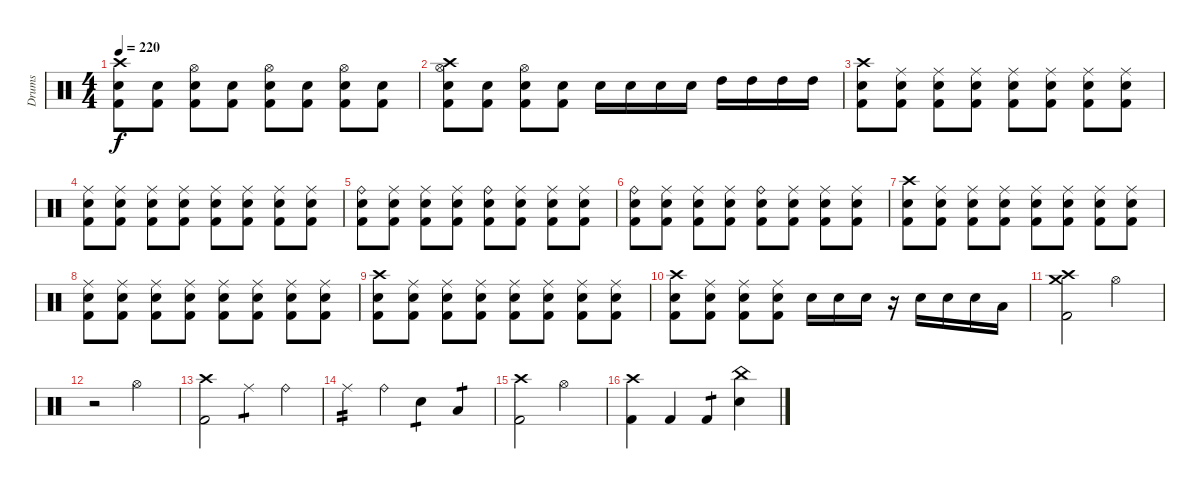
\track ("Drums" "Drums") {instrument percussion}
\staff {score}
\articulation defaults
\ts (4 4)
\tempo 220
\clef neutral
\ks c
("Crash high (hit)" "Electric Snare (hit)" "Kick (hit) 2").8{dy f} ("Electric Snare (hit)" "Kick (hit) 2").8 ("Hi-Hat (open)" "Electric Snare (hit)" "Kick (hit) 2").8 ("Electric Snare (hit)" "Kick (hit) 2").8 ("Hi-Hat (open)" "Electric Snare (hit)" "Kick (hit) 2").8 ("Electric Snare (hit)" "Kick (hit) 2").8 ("Hi-Hat (open)" "Electric Snare (hit)" "Kick (hit) 2").8 ("Electric Snare (hit)" "Kick (hit) 2").8 |
("Crash high (hit)" "Hi-Hat (open)" "Electric Snare (hit)" "Kick (hit) 2").8 ("Electric Snare (hit)" "Kick (hit) 2").8 ("Hi-Hat (open)" "Electric Snare (hit)" "Kick (hit) 2").8 ("Electric Snare (hit)" "Kick (hit) 2").8 "Electric Snare (hit)".16 "Electric Snare (hit)".16 "Electric Snare (hit)".16 "Electric Snare (hit)".16 "High Tom (hit)".16 "High Tom (hit)".16 "High Tom (hit)".16 "High Tom (hit)".16 |
("Crash high (hit)" "Electric Snare (hit)" "Kick (hit) 2").8 ("Ride (middle)" "Electric Snare (hit)" "Kick (hit) 2").8 ("Ride (middle)" "Electric Snare (hit)" "Kick (hit) 2").8 ("Ride (middle)" "Electric Snare (hit)" "Kick (hit) 2").8 ("Ride (middle)" "Electric Snare (hit)" "Kick (hit) 2").8 ("Ride (middle)" "Electric Snare (hit)" "Kick (hit) 2").8 ("Ride (middle)" "Electric Snare (hit)" "Kick (hit) 2").8 ("Ride (middle)" "Electric Snare (hit)" "Kick (hit) 2").8 |
("Ride (middle)" "Electric Snare (hit)" "Kick (hit) 2").8 ("Ride (middle)" "Electric Snare (hit)" "Kick (hit) 2").8 ("Ride (middle)" "Electric Snare (hit)" "Kick (hit) 2").8 ("Ride (middle)" "Electric Snare (hit)" "Kick (hit) 2").8 ("Ride (middle)" "Electric Snare (hit)" "Kick (hit) 2").8 ("Ride (middle)" "Electric Snare (hit)" "Kick (hit) 2").8 ("Ride (middle)" "Electric Snare (hit)" "Kick (hit) 2").8 ("Ride (middle)" "Electric Snare (hit)" "Kick (hit) 2").8 |
("Ride (bell)" "Electric Snare (hit)" "Kick (hit) 2").8 ("Ride (middle)" "Electric Snare (hit)" "Kick (hit) 2").8 ("Ride (middle)" "Electric Snare (hit)" "Kick (hit) 2").8 ("Ride (middle)" "Electric Snare (hit)" "Kick (hit) 2").8 ("Ride (bell)" "Electric Snare (hit)" "Kick (hit) 2").8 ("Ride (middle)" "Electric Snare (hit)" "Kick (hit) 2").8 ("Ride (middle)" "Electric Snare (hit)" "Kick (hit) 2").8 ("Ride (middle)" "Electric Snare (hit)" "Kick (hit) 2").8 |
("Ride (bell)" "Electric Snare (hit)" "Kick (hit) 2").8 ("Ride (middle)" "Electric Snare (hit)" "Kick (hit) 2").8 ("Ride (middle)" "Electric Snare (hit)" "Kick (hit) 2").8 ("Ride (middle)" "Electric Snare (hit)" "Kick (hit) 2").8 ("Ride (bell)" "Electric Snare (hit)" "Kick (hit) 2").8 ("Ride (middle)" "Electric Snare (hit)" "Kick (hit) 2").8 ("Ride (middle)" "Electric Snare (hit)" "Kick (hit) 2").8 ("Ride (middle)" "Electric Snare (hit)" "Kick (hit) 2").8 |
("Crash high (hit)" "Electric Snare (hit)" "Kick (hit) 2").8 ("Ride (middle)" "Electric Snare (hit)" "Kick (hit) 2").8 ("Ride (middle)" "Electric Snare (hit)" "Kick (hit) 2").8 ("Ride (middle)" "Electric Snare (hit)" "Kick (hit) 2").8 ("Ride (middle)" "Electric Snare (hit)" "Kick (hit) 2").8 ("Ride (middle)" "Electric Snare (hit)" "Kick (hit) 2").8 ("Ride (middle)" "Electric Snare (hit)" "Kick (hit) 2").8 ("Ride (middle)" "Electric Snare (hit)" "Kick (hit) 2").8 |
("Ride (middle)" "Electric Snare (hit)" "Kick (hit) 2").8 ("Ride (middle)" "Electric Snare (hit)" "Kick (hit) 2").8 ("Ride (middle)" "Electric Snare (hit)" "Kick (hit) 2").8 ("Ride (middle)" "Electric Snare (hit)" "Kick (hit) 2").8 ("Ride (middle)" "Electric Snare (hit)" "Kick (hit) 2").8 ("Ride (middle)" "Electric Snare (hit)" "Kick (hit) 2").8 ("Ride (middle)" "Electric Snare (hit)" "Kick (hit) 2").8 ("Ride (middle)" "Electric Snare (hit)" "Kick (hit) 2").8 |
("Crash high (hit)" "Electric Snare (hit)" "Kick (hit) 2").8 ("Ride (middle)" "Electric Snare (hit)" "Kick (hit) 2").8 ("Ride (middle)" "Electric Snare (hit)" "Kick (hit) 2").8 ("Ride (middle)" "Electric Snare (hit)" "Kick (hit) 2").8 ("Ride (middle)" "Electric Snare (hit)" "Kick (hit) 2").8 ("Ride (middle)" "Electric Snare (hit)" "Kick (hit) 2").8 ("Ride (middle)" "Electric Snare (hit)" "Kick (hit) 2").8 ("Ride (middle)" "Electric Snare (hit)" "Kick (hit) 2").8 |
("Crash high (hit)" "Electric Snare (hit)" "Kick (hit) 2").8 ("Ride (middle)" "Electric Snare (hit)" "Kick (hit) 2").8 ("Ride (middle)" "Electric Snare (hit)" "Kick (hit) 2").8 ("Ride (middle)" "Electric Snare (hit)" "Kick (hit) 2").8 "Electric Snare (hit)".16 "Electric Snare (hit)".16 "Electric Snare (hit)".16 r.16 "Electric Snare (hit)".16 "Electric Snare (hit)".16 "Electric Snare (hit)".16 "Low Floor Tom (hit)".16 |
("Crash high (hit)" "Crash medium (hit)" "Kick (hit) 2").2 "Hi-Hat (open)".2 |
r.2 "Hi-Hat (open)".2 |
("Crash high (hit)" "Kick (hit) 2").2 "Ride (middle)".4{tp 1} "Ride (bell)".4 |
"Ride (middle)".4{tp 2} "Ride (bell)".4 "Electric Snare (hit)".4{tp 1} "Low Floor Tom (hit)".4{tp 1} |
("Crash high (hit)" "Kick (hit) 2").2 "Hi-Hat (open)".2 |
("Crash high (hit)" "Kick (hit) 2").4 "Kick (hit) 2".4 "Kick (hit) 2".4{tp 1} ("China (hit)" "Electric Snare (hit)").4
